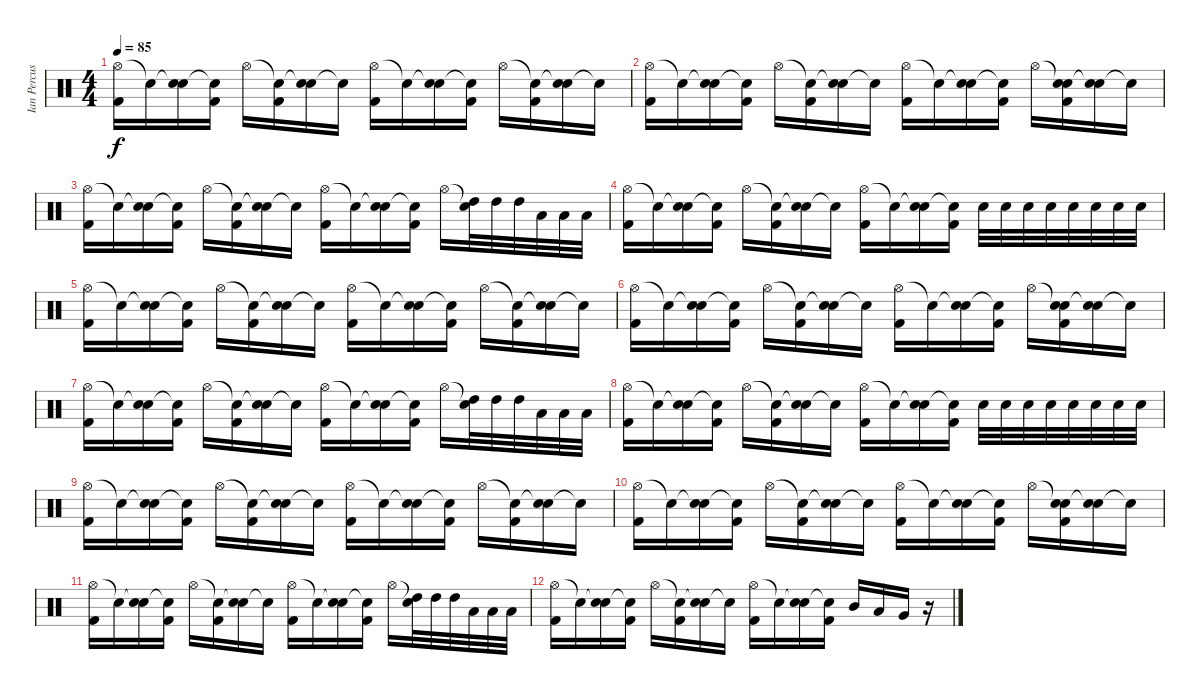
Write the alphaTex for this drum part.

\track ("Ian Percussion" "Ian Percus") {instrument percussion}
\staff {score}
\articulation defaults
\ts (4 4)
\tempo 85
\clef neutral
\ks c
("Hi-Hat (open)" "Kick (hit) 2").16{dy f} "Snare (hit)"{t}.16 ("Snare (hit)"{t} "Electric Snare (hit)").16 ("Snare (hit)"{t} "Kick (hit) 2").16 "Hi-Hat (open)".16 ("Snare (hit)"{t} "Kick (hit) 2").16 ("Snare (hit)"{t} "Electric Snare (hit)").16 "Snare (hit)"{t}.16 ("Hi-Hat (open)" "Kick (hit) 2").16 "Snare (hit)"{t}.16 ("Snare (hit)"{t} "Electric Snare (hit)").16 ("Snare (hit)"{t} "Kick (hit) 2").16 "Hi-Hat (open)".16 ("Snare (hit)"{t} "Kick (hit) 2").16 ("Snare (hit)"{t} "Electric Snare (hit)").16 "Snare (hit)"{t}.16 |
("Hi-Hat (open)" "Kick (hit) 2").16 "Snare (hit)"{t}.16 ("Snare (hit)"{t} "Electric Snare (hit)").16 ("Snare (hit)"{t} "Kick (hit) 2").16 "Hi-Hat (open)".16 ("Snare (hit)"{t} "Kick (hit) 2").16 ("Snare (hit)"{t} "Electric Snare (hit)").16 "Snare (hit)"{t}.16 ("Hi-Hat (open)" "Kick (hit) 2").16 "Snare (hit)"{t}.16 ("Snare (hit)"{t} "Electric Snare (hit)").16 ("Snare (hit)"{t} "Kick (hit) 2").16 "Hi-Hat (open)".16 ("Snare (hit)"{t} "Hand Clap (hit)" "Kick (hit) 2").16 ("Snare (hit)"{t} "Hand Clap (hit)").16 "Snare (hit)"{t}.16 |
("Hi-Hat (open)" "Kick (hit) 2").16 "Snare (hit)"{t}.16 ("Snare (hit)"{t} "Electric Snare (hit)").16 ("Snare (hit)"{t} "Kick (hit) 2").16 "Hi-Hat (open)".16 ("Snare (hit)"{t} "Kick (hit) 2").16 ("Snare (hit)"{t} "Electric Snare (hit)").16 "Snare (hit)"{t}.16 ("Hi-Hat (open)" "Kick (hit) 2").16 "Snare (hit)"{t}.16 ("Snare (hit)"{t} "Electric Snare (hit)").16 ("Snare (hit)"{t} "Kick (hit) 2").16 "Hi-Hat (open)".16 ("Snare (hit)"{t} "High Tom (hit)").32 "High Tom (hit)".32 "High Tom (hit)".32 "Low Tom (hit)".32 "Low Tom (hit)".32 "Low Tom (hit)".32 |
("Hi-Hat (open)" "Kick (hit) 2").16 "Snare (hit)"{t}.16 ("Snare (hit)"{t} "Electric Snare (hit)").16 ("Snare (hit)"{t} "Kick (hit) 2").16 "Hi-Hat (open)".16 ("Snare (hit)"{t} "Kick (hit) 2").16 ("Snare (hit)"{t} "Electric Snare (hit)").16 "Snare (hit)"{t}.16 ("Hi-Hat (open)" "Kick (hit) 2").16 "Snare (hit)"{t}.16 ("Snare (hit)"{t} "Electric Snare (hit)").16 ("Snare (hit)"{t} "Kick (hit) 2").16 "Electric Snare (hit)".32 "Electric Snare (hit)".32 "Electric Snare (hit)".32 "Electric Snare (hit)".32 "Electric Snare (hit)".32 "Electric Snare (hit)".32 "Electric Snare (hit)".32 "Electric Snare (hit)".32 |
("Hi-Hat (open)" "Kick (hit) 2").16 "Snare (hit)"{t}.16 ("Snare (hit)"{t} "Electric Snare (hit)").16 ("Snare (hit)"{t} "Kick (hit) 2").16 "Hi-Hat (open)".16 ("Snare (hit)"{t} "Kick (hit) 2").16 ("Snare (hit)"{t} "Electric Snare (hit)").16 "Snare (hit)"{t}.16 ("Hi-Hat (open)" "Kick (hit) 2").16 "Snare (hit)"{t}.16 ("Snare (hit)"{t} "Electric Snare (hit)").16 ("Snare (hit)"{t} "Kick (hit) 2").16 "Hi-Hat (open)".16 ("Snare (hit)"{t} "Kick (hit) 2").16 ("Snare (hit)"{t} "Electric Snare (hit)").16 "Snare (hit)"{t}.16 |
("Hi-Hat (open)" "Kick (hit) 2").16 "Snare (hit)"{t}.16 ("Snare (hit)"{t} "Electric Snare (hit)").16 ("Snare (hit)"{t} "Kick (hit) 2").16 "Hi-Hat (open)".16 ("Snare (hit)"{t} "Kick (hit) 2").16 ("Snare (hit)"{t} "Electric Snare (hit)").16 "Snare (hit)"{t}.16 ("Hi-Hat (open)" "Kick (hit) 2").16 "Snare (hit)"{t}.16 ("Snare (hit)"{t} "Electric Snare (hit)").16 ("Snare (hit)"{t} "Kick (hit) 2").16 "Hi-Hat (open)".16 ("Snare (hit)"{t} "Hand Clap (hit)" "Kick (hit) 2").16 ("Snare (hit)"{t} "Hand Clap (hit)").16 "Snare (hit)"{t}.16 |
("Hi-Hat (open)" "Kick (hit) 2").16 "Snare (hit)"{t}.16 ("Snare (hit)"{t} "Electric Snare (hit)").16 ("Snare (hit)"{t} "Kick (hit) 2").16 "Hi-Hat (open)".16 ("Snare (hit)"{t} "Kick (hit) 2").16 ("Snare (hit)"{t} "Electric Snare (hit)").16 "Snare (hit)"{t}.16 ("Hi-Hat (open)" "Kick (hit) 2").16 "Snare (hit)"{t}.16 ("Snare (hit)"{t} "Electric Snare (hit)").16 ("Snare (hit)"{t} "Kick (hit) 2").16 "Hi-Hat (open)".16 ("Snare (hit)"{t} "High Tom (hit)").32 "High Tom (hit)".32 "High Tom (hit)".32 "Low Tom (hit)".32 "Low Tom (hit)".32 "Low Tom (hit)".32 |
("Hi-Hat (open)" "Kick (hit) 2").16 "Snare (hit)"{t}.16 ("Snare (hit)"{t} "Electric Snare (hit)").16 ("Snare (hit)"{t} "Kick (hit) 2").16 "Hi-Hat (open)".16 ("Snare (hit)"{t} "Kick (hit) 2").16 ("Snare (hit)"{t} "Electric Snare (hit)").16 "Snare (hit)"{t}.16 ("Hi-Hat (open)" "Kick (hit) 2").16 "Snare (hit)"{t}.16 ("Snare (hit)"{t} "Electric Snare (hit)").16 ("Snare (hit)"{t} "Kick (hit) 2").16 "Electric Snare (hit)".32 "Electric Snare (hit)".32 "Electric Snare (hit)".32 "Electric Snare (hit)".32 "Electric Snare (hit)".32 "Electric Snare (hit)".32 "Electric Snare (hit)".32 "Electric Snare (hit)".32 |
("Hi-Hat (open)" "Kick (hit) 2").16 "Snare (hit)"{t}.16 ("Snare (hit)"{t} "Electric Snare (hit)").16 ("Snare (hit)"{t} "Kick (hit) 2").16 "Hi-Hat (open)".16 ("Snare (hit)"{t} "Kick (hit) 2").16 ("Snare (hit)"{t} "Electric Snare (hit)").16 "Snare (hit)"{t}.16 ("Hi-Hat (open)" "Kick (hit) 2").16 "Snare (hit)"{t}.16 ("Snare (hit)"{t} "Electric Snare (hit)").16 ("Snare (hit)"{t} "Kick (hit) 2").16 "Hi-Hat (open)".16 ("Snare (hit)"{t} "Kick (hit) 2").16 ("Snare (hit)"{t} "Electric Snare (hit)").16 "Snare (hit)"{t}.16 |
("Hi-Hat (open)" "Kick (hit) 2").16 "Snare (hit)"{t}.16 ("Snare (hit)"{t} "Electric Snare (hit)").16 ("Snare (hit)"{t} "Kick (hit) 2").16 "Hi-Hat (open)".16 ("Snare (hit)"{t} "Kick (hit) 2").16 ("Snare (hit)"{t} "Electric Snare (hit)").16 "Snare (hit)"{t}.16 ("Hi-Hat (open)" "Kick (hit) 2").16 "Snare (hit)"{t}.16 ("Snare (hit)"{t} "Electric Snare (hit)").16 ("Snare (hit)"{t} "Kick (hit) 2").16 "Hi-Hat (open)".16 ("Snare (hit)"{t} "Hand Clap (hit)" "Kick (hit) 2").16 ("Snare (hit)"{t} "Hand Clap (hit)").16 "Snare (hit)"{t}.16 |
("Hi-Hat (open)" "Kick (hit) 2").16 "Snare (hit)"{t}.16 ("Snare (hit)"{t} "Electric Snare (hit)").16 ("Snare (hit)"{t} "Kick (hit) 2").16 "Hi-Hat (open)".16 ("Snare (hit)"{t} "Kick (hit) 2").16 ("Snare (hit)"{t} "Electric Snare (hit)").16 "Snare (hit)"{t}.16 ("Hi-Hat (open)" "Kick (hit) 2").16 "Snare (hit)"{t}.16 ("Snare (hit)"{t} "Electric Snare (hit)").16 ("Snare (hit)"{t} "Kick (hit) 2").16 "Hi-Hat (open)".16 ("Snare (hit)"{t} "High Tom (hit)").32 "High Tom (hit)".32 "High Tom (hit)".32 "Low Tom (hit)".32 "Low Tom (hit)".32 "Low Tom (hit)".32 |
("Hi-Hat (open)" "Kick (hit) 2").16 "Snare (hit)"{t}.16 ("Snare (hit)"{t} "Electric Snare (hit)").16 ("Snare (hit)"{t} "Kick (hit) 2").16 "Hi-Hat (open)".16 ("Snare (hit)"{t} "Kick (hit) 2").16 ("Snare (hit)"{t} "Electric Snare (hit)").16 "Snare (hit)"{t}.16 ("Hi-Hat (open)" "Kick (hit) 2").16 "Snare (hit)"{t}.16 ("Snare (hit)"{t} "Electric Snare (hit)").16 ("Snare (hit)"{t} "Kick (hit) 2").16 "Mid Tom (hit)".16 "Low Tom (hit)".16 "Very Low Tom (hit)".16 r.16
